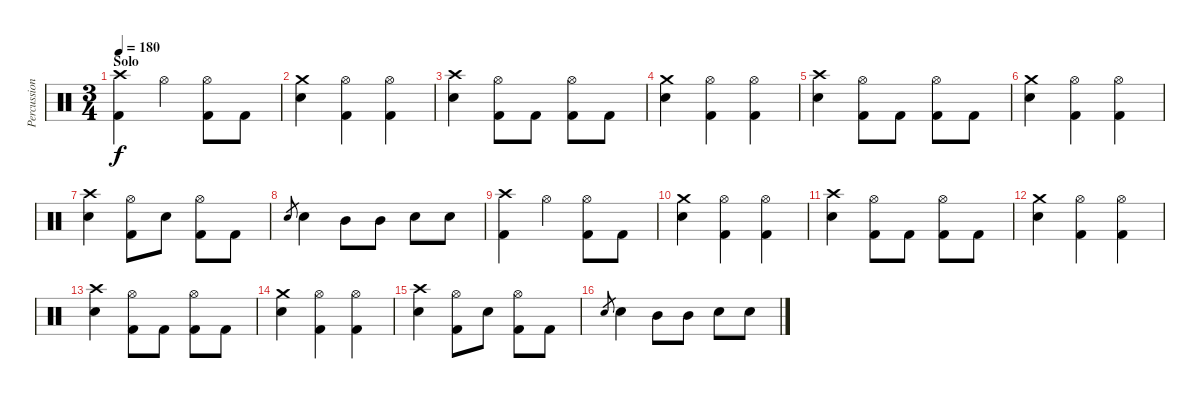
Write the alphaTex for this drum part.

\track ("Percussions" "Percussion") {instrument percussion}
\staff {score}
\articulation defaults
\ts (3 4)
\section ("" "Solo")
\tempo 180
\clef neutral
\ks c
("Crash high (hit)" "Kick (hit) 2").4{dy f} "Hi-Hat (open)".4 ("Hi-Hat (open)" "Kick (hit) 2").8 "Kick (hit) 2".8 |
("Crash medium (hit)" "Snare (hit) 2").4 ("Hi-Hat (open)" "Kick (hit) 2").4 ("Hi-Hat (open)" "Kick (hit) 2").4 |
("Crash high (hit)" "Snare (hit) 2").4 ("Hi-Hat (open)" "Kick (hit) 2").8 "Kick (hit) 2".8 ("Hi-Hat (open)" "Kick (hit) 2").8 "Kick (hit) 2".8 |
("Crash medium (hit)" "Snare (hit) 2").4 ("Hi-Hat (open)" "Kick (hit) 2").4 ("Hi-Hat (open)" "Kick (hit) 2").4 |
("Crash high (hit)" "Snare (hit) 2").4 ("Hi-Hat (open)" "Kick (hit) 2").8 "Kick (hit) 2".8 ("Hi-Hat (open)" "Kick (hit) 2").8 "Kick (hit) 2".8 |
("Crash medium (hit)" "Snare (hit) 2").4 ("Hi-Hat (open)" "Kick (hit) 2").4 ("Hi-Hat (open)" "Kick (hit) 2").4 |
("Crash high (hit)" "Snare (hit) 2").4 ("Hi-Hat (open)" "Kick (hit) 2").8 "Snare (hit) 2".8 ("Hi-Hat (open)" "Kick (hit) 2").8 "Kick (hit) 2".8 |
"Snare (hit) 2".8{gr} "Snare (hit) 2".4 "Mid Tom (hit)".8 "Mid Tom (hit)".8 "Snare (hit) 2".8 "Snare (hit) 2".8 |
("Crash high (hit)" "Kick (hit) 2").4 "Hi-Hat (open)".4 ("Hi-Hat (open)" "Kick (hit) 2").8 "Kick (hit) 2".8 |
("Crash medium (hit)" "Snare (hit) 2").4 ("Hi-Hat (open)" "Kick (hit) 2").4 ("Hi-Hat (open)" "Kick (hit) 2").4 |
("Crash high (hit)" "Snare (hit) 2").4 ("Hi-Hat (open)" "Kick (hit) 2").8 "Kick (hit) 2".8 ("Hi-Hat (open)" "Kick (hit) 2").8 "Kick (hit) 2".8 |
("Crash medium (hit)" "Snare (hit) 2").4 ("Hi-Hat (open)" "Kick (hit) 2").4 ("Hi-Hat (open)" "Kick (hit) 2").4 |
("Crash high (hit)" "Snare (hit) 2").4 ("Hi-Hat (open)" "Kick (hit) 2").8 "Kick (hit) 2".8 ("Hi-Hat (open)" "Kick (hit) 2").8 "Kick (hit) 2".8 |
("Crash medium (hit)" "Snare (hit) 2").4 ("Hi-Hat (open)" "Kick (hit) 2").4 ("Hi-Hat (open)" "Kick (hit) 2").4 |
("Crash high (hit)" "Snare (hit) 2").4 ("Hi-Hat (open)" "Kick (hit) 2").8 "Snare (hit) 2".8 ("Hi-Hat (open)" "Kick (hit) 2").8 "Kick (hit) 2".8 |
"Snare (hit) 2".8{gr} "Snare (hit) 2".4 "Mid Tom (hit)".8 "Mid Tom (hit)".8 "Snare (hit) 2".8 "Snare (hit) 2".8
